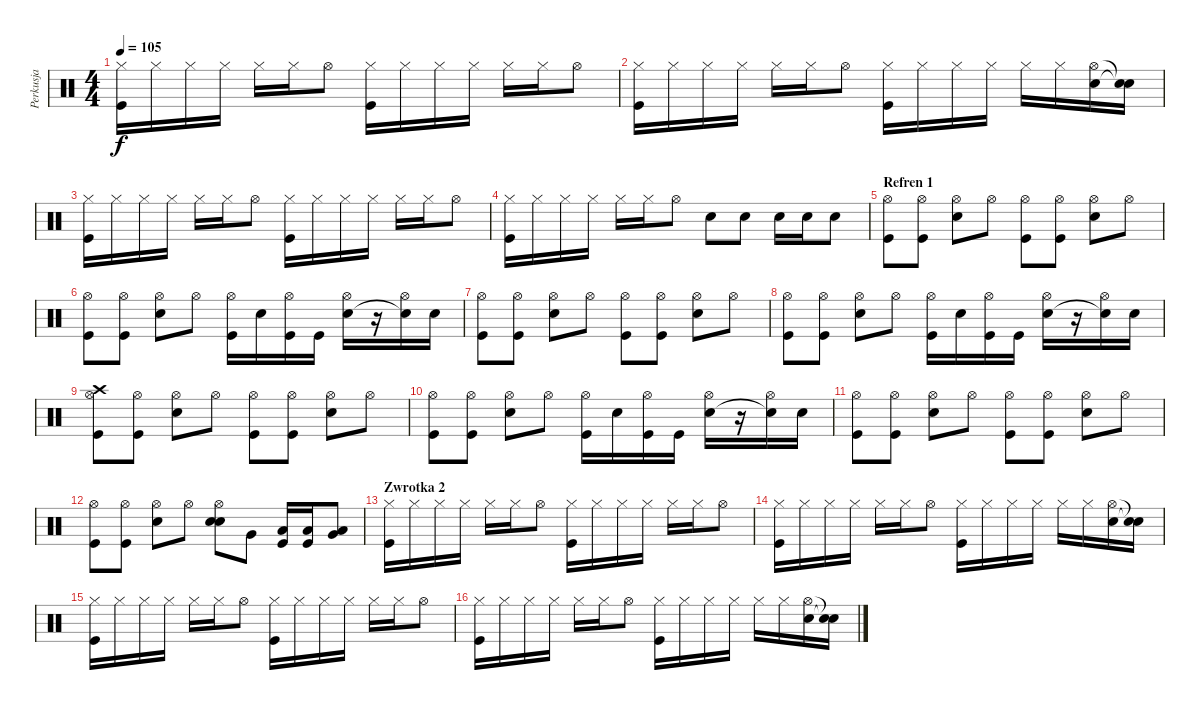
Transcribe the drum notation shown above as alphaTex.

\track ("Perkusja" "Perkusja") {instrument percussion}
\staff {score}
\articulation defaults
\ts (4 4)
\tempo 105
\clef neutral
\ks c
("Hi-Hat (closed)" "Kick (hit)").16{dy f} "Hi-Hat (closed)".16 "Hi-Hat (closed)".16 "Hi-Hat (closed)".16 "Hi-Hat (closed)".16 "Hi-Hat (closed)".16 "Hi-Hat (open)".8 ("Hi-Hat (closed)" "Kick (hit)").16 "Hi-Hat (closed)".16 "Hi-Hat (closed)".16 "Hi-Hat (closed)".16 "Hi-Hat (closed)".16 "Hi-Hat (closed)".16 "Hi-Hat (open)".8 |
("Hi-Hat (closed)" "Kick (hit)").16 "Hi-Hat (closed)".16 "Hi-Hat (closed)".16 "Hi-Hat (closed)".16 "Hi-Hat (closed)".16 "Hi-Hat (closed)".16 "Hi-Hat (open)".8 ("Hi-Hat (closed)" "Kick (hit)").16 "Hi-Hat (closed)".16 "Hi-Hat (closed)".16 "Hi-Hat (closed)".16 "Hi-Hat (closed)".16 "Hi-Hat (closed)".16 ("Hi-Hat (open)" "Snare (hit) 2").16 ("Snare (hit)"{t} "Snare (hit) 2"{t}).16 |
("Hi-Hat (closed)" "Kick (hit)").16 "Hi-Hat (closed)".16 "Hi-Hat (closed)".16 "Hi-Hat (closed)".16 "Hi-Hat (closed)".16 "Hi-Hat (closed)".16 "Hi-Hat (open)".8 ("Hi-Hat (closed)" "Kick (hit)").16 "Hi-Hat (closed)".16 "Hi-Hat (closed)".16 "Hi-Hat (closed)".16 "Hi-Hat (closed)".16 "Hi-Hat (closed)".16 "Hi-Hat (open)".8 |
("Hi-Hat (closed)" "Kick (hit)").16 "Hi-Hat (closed)".16 "Hi-Hat (closed)".16 "Hi-Hat (closed)".16 "Hi-Hat (closed)".16 "Hi-Hat (closed)".16 "Hi-Hat (open)".8 "Snare (hit) 2".8 "Snare (hit) 2".8 "Snare (hit) 2".16 "Snare (hit) 2".16 "Snare (hit) 2".8 |
\section ("" "Refren 1")
("Hi-Hat (open)" "Kick (hit)").8 ("Hi-Hat (open)" "Kick (hit)").8 ("Hi-Hat (open)" "Snare (hit) 2").8 "Hi-Hat (open)".8 ("Hi-Hat (open)" "Kick (hit)").8 ("Hi-Hat (open)" "Kick (hit)").8 ("Hi-Hat (open)" "Snare (hit) 2").8 "Hi-Hat (open)".8 |
("Hi-Hat (open)" "Kick (hit)").8 ("Hi-Hat (open)" "Kick (hit)").8 ("Hi-Hat (open)" "Snare (hit) 2").8 "Hi-Hat (open)".8 ("Hi-Hat (open)" "Kick (hit)").16 "Snare (hit) 2".16 ("Hi-Hat (open)" "Kick (hit)").16 "Kick (hit)".16 ("Hi-Hat (open)" "Snare (hit) 2").16 r.16 ("Hi-Hat (open)" "Snare (hit)"{t}).16 "Snare (hit) 2".16 |
("Hi-Hat (open)" "Kick (hit)").8 ("Hi-Hat (open)" "Kick (hit)").8 ("Hi-Hat (open)" "Snare (hit) 2").8 "Hi-Hat (open)".8 ("Hi-Hat (open)" "Kick (hit)").8 ("Hi-Hat (open)" "Kick (hit)").8 ("Hi-Hat (open)" "Snare (hit) 2").8 "Hi-Hat (open)".8 |
("Hi-Hat (open)" "Kick (hit)").8 ("Hi-Hat (open)" "Kick (hit)").8 ("Hi-Hat (open)" "Snare (hit) 2").8 "Hi-Hat (open)".8 ("Hi-Hat (open)" "Kick (hit)").16 "Snare (hit) 2".16 ("Hi-Hat (open)" "Kick (hit)").16 "Kick (hit)".16 ("Hi-Hat (open)" "Snare (hit) 2").16 r.16 ("Hi-Hat (open)" "Snare (hit)"{t}).16 "Snare (hit) 2".16 |
("Hi-Hat (open)" "Crash high (hit)" "Kick (hit)").8{volume 16} ("Hi-Hat (open)" "Kick (hit)").8 ("Hi-Hat (open)" "Snare (hit) 2").8 "Hi-Hat (open)".8 ("Hi-Hat (open)" "Kick (hit)").8 ("Hi-Hat (open)" "Kick (hit)").8 ("Hi-Hat (open)" "Snare (hit) 2").8 "Hi-Hat (open)".8 |
("Hi-Hat (open)" "Kick (hit)").8 ("Hi-Hat (open)" "Kick (hit)").8 ("Hi-Hat (open)" "Snare (hit) 2").8 "Hi-Hat (open)".8 ("Hi-Hat (open)" "Kick (hit)").16 "Snare (hit) 2".16 ("Hi-Hat (open)" "Kick (hit)").16 "Kick (hit)".16 ("Hi-Hat (open)" "Snare (hit) 2").16 r.16 ("Hi-Hat (open)" "Snare (hit)"{t}).16 "Snare (hit) 2".16 |
("Hi-Hat (open)" "Kick (hit)").8 ("Hi-Hat (open)" "Kick (hit)").8 ("Hi-Hat (open)" "Snare (hit) 2").8 "Hi-Hat (open)".8 ("Hi-Hat (open)" "Kick (hit)").8 ("Hi-Hat (open)" "Kick (hit)").8 ("Hi-Hat (open)" "Snare (hit) 2").8 "Hi-Hat (open)".8 |
("Hi-Hat (open)" "Kick (hit)").8 ("Hi-Hat (open)" "Kick (hit)").8 ("Hi-Hat (open)" "Snare (hit) 2").8 "Hi-Hat (open)".8 ("Hi-Hat (open)" "Snare (hit) 2" "Snare (hit) 2").8 "Very Low Tom (hit)".8 ("Low Tom (hit)" "Kick (hit)").16 ("Low Tom (hit)" "Kick (hit)").16 ("Low Tom (hit)" "Very Low Tom (hit)").8 |
\section ("" "Zwrotka 2")
("Hi-Hat (closed)" "Kick (hit)").16 "Hi-Hat (closed)".16 "Hi-Hat (closed)".16 "Hi-Hat (closed)".16 "Hi-Hat (closed)".16 "Hi-Hat (closed)".16 "Hi-Hat (open)".8 ("Hi-Hat (closed)" "Kick (hit)").16 "Hi-Hat (closed)".16 "Hi-Hat (closed)".16 "Hi-Hat (closed)".16 "Hi-Hat (closed)".16 "Hi-Hat (closed)".16 "Hi-Hat (open)".8 |
("Hi-Hat (closed)" "Kick (hit)").16 "Hi-Hat (closed)".16 "Hi-Hat (closed)".16 "Hi-Hat (closed)".16 "Hi-Hat (closed)".16 "Hi-Hat (closed)".16 "Hi-Hat (open)".8 ("Hi-Hat (closed)" "Kick (hit)").16 "Hi-Hat (closed)".16 "Hi-Hat (closed)".16 "Hi-Hat (closed)".16 "Hi-Hat (closed)".16 "Hi-Hat (closed)".16 ("Hi-Hat (open)" "Snare (hit) 2").16 ("Snare (hit)"{t} "Snare (hit) 2"{t}).16 |
("Hi-Hat (closed)" "Kick (hit)").16 "Hi-Hat (closed)".16 "Hi-Hat (closed)".16 "Hi-Hat (closed)".16 "Hi-Hat (closed)".16 "Hi-Hat (closed)".16 "Hi-Hat (open)".8 ("Hi-Hat (closed)" "Kick (hit)").16 "Hi-Hat (closed)".16 "Hi-Hat (closed)".16 "Hi-Hat (closed)".16 "Hi-Hat (closed)".16 "Hi-Hat (closed)".16 "Hi-Hat (open)".8 |
("Hi-Hat (closed)" "Kick (hit)").16 "Hi-Hat (closed)".16 "Hi-Hat (closed)".16 "Hi-Hat (closed)".16 "Hi-Hat (closed)".16 "Hi-Hat (closed)".16 "Hi-Hat (open)".8 ("Hi-Hat (closed)" "Kick (hit)").16 "Hi-Hat (closed)".16 "Hi-Hat (closed)".16 "Hi-Hat (closed)".16 "Hi-Hat (closed)".16 "Hi-Hat (closed)".16 ("Hi-Hat (open)" "Snare (hit) 2").16 ("Snare (hit)"{t} "Snare (hit) 2"{t}).16
